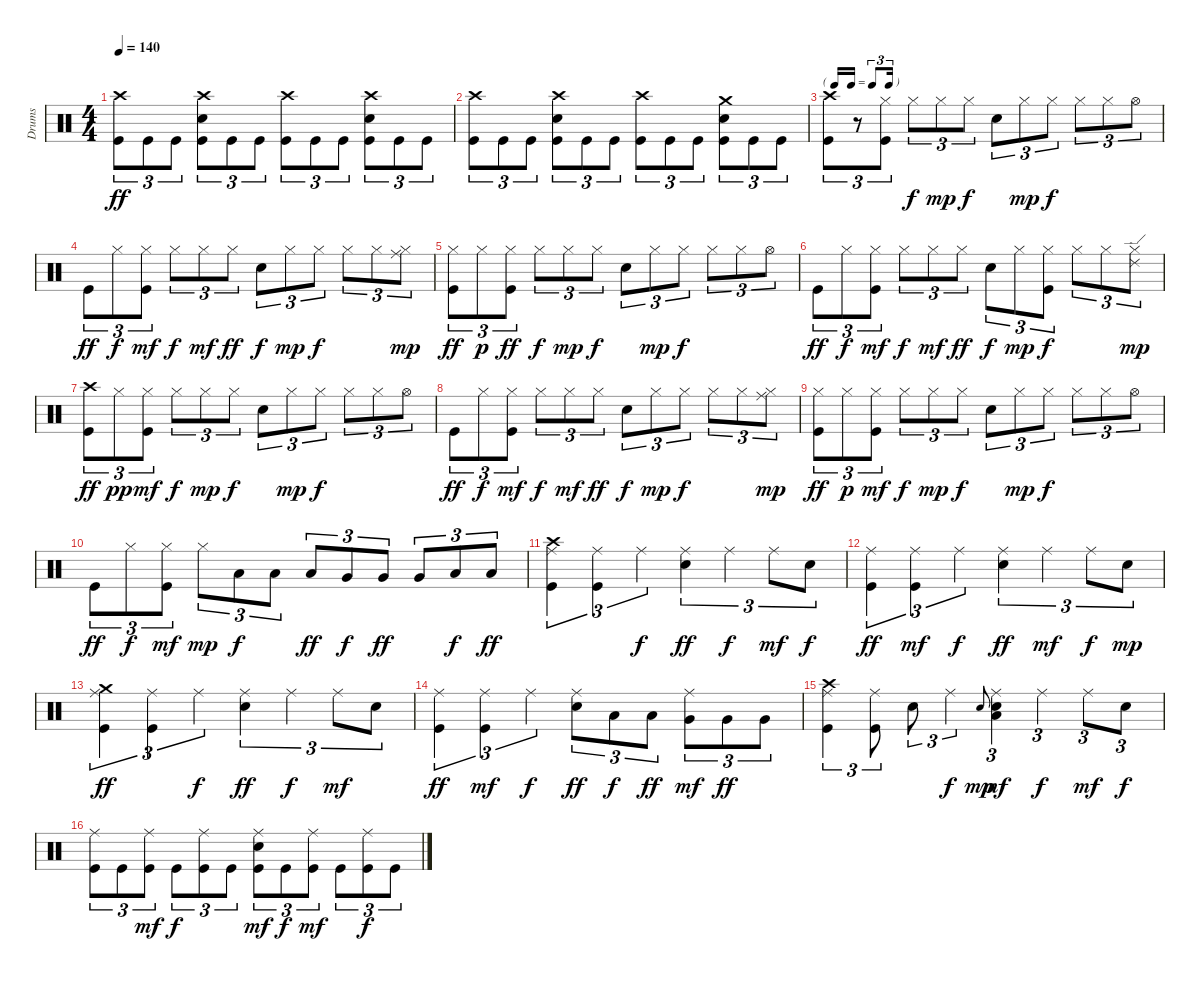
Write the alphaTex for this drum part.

\track ("Drums" "Drums") {instrument percussion}
\staff {score}
\articulation defaults
\ts (4 4)
\tempo 140
\clef neutral
\ks c
("Crash high (hit)" "Kick (hit)").8{tu (3 2) dy ff} "Kick (hit)".8{tu (3 2)} "Kick (hit)".8{tu (3 2)} ("Crash high (hit)" "Electric Snare (hit)" "Kick (hit)").8{tu (3 2)} "Kick (hit)".8{tu (3 2)} "Kick (hit)".8{tu (3 2)} ("Crash high (hit)" "Kick (hit)").8{tu (3 2)} "Kick (hit)".8{tu (3 2)} "Kick (hit)".8{tu (3 2)} ("Crash high (hit)" "Electric Snare (hit)" "Kick (hit)").8{tu (3 2)} "Kick (hit)".8{tu (3 2)} "Kick (hit)".8{tu (3 2)} |
("Crash high (hit)" "Kick (hit)").8{tu (3 2)} "Kick (hit)".8{tu (3 2)} "Kick (hit)".8{tu (3 2)} ("Crash high (hit)" "Electric Snare (hit)" "Kick (hit)").8{tu (3 2)} "Kick (hit)".8{tu (3 2)} "Kick (hit)".8{tu (3 2)} ("Crash high (hit)" "Kick (hit)").8{tu (3 2)} "Kick (hit)".8{tu (3 2)} "Kick (hit)".8{tu (3 2)} ("Crash medium (hit)" "Electric Snare (hit)" "Kick (hit)").8{tu (3 2)} "Kick (hit)".8{tu (3 2)} "Kick (hit)".8{tu (3 2)} |
\tf triplet16th
("Crash high (hit)" "Kick (hit)").8{tu (3 2)} r.8{tu (3 2)} ("Hi-Hat (closed)" "Kick (hit)").8{tu (3 2)} "Hi-Hat (closed)".8{tu (3 2) dy f} "Hi-Hat (closed)".8{tu (3 2) dy mp} "Hi-Hat (closed)".8{tu (3 2) dy f} "Electric Snare (hit)".8{tu (3 2)} "Hi-Hat (closed)".8{tu (3 2) dy mp} "Hi-Hat (closed)".8{tu (3 2) dy f} "Hi-Hat (closed)".8{tu (3 2)} "Hi-Hat (closed)".8{tu (3 2)} "Hi-Hat (open)".8{tu (3 2)} |
"Kick (hit)".8{tu (3 2) dy ff} "Hi-Hat (closed)".8{tu (3 2) dy f} ("Hi-Hat (closed)" "Kick (hit)").8{tu (3 2) dy mf} "Hi-Hat (closed)".8{tu (3 2) dy f} "Hi-Hat (closed)".8{tu (3 2) dy mf} "Hi-Hat (closed)".8{tu (3 2) dy ff} "Electric Snare (hit)".8{tu (3 2) dy f} "Hi-Hat (closed)".8{tu (3 2) dy mp} "Hi-Hat (closed)".8{tu (3 2) dy f} "Hi-Hat (closed)".8{tu (3 2)} "Hi-Hat (closed)".8{tu (3 2)} ("Hi-Hat (closed)" "Ride (middle)").8{tu (3 2) dy mp} |
("Hi-Hat (closed)" "Kick (hit)").8{tu (3 2) dy ff} "Hi-Hat (closed)".8{tu (3 2) dy p} ("Hi-Hat (closed)" "Kick (hit)").8{tu (3 2) dy ff} "Hi-Hat (closed)".8{tu (3 2) dy f} "Hi-Hat (closed)".8{tu (3 2) dy mp} "Hi-Hat (closed)".8{tu (3 2) dy f} "Electric Snare (hit)".8{tu (3 2)} "Hi-Hat (closed)".8{tu (3 2) dy mp} "Hi-Hat (closed)".8{tu (3 2) dy f} "Hi-Hat (closed)".8{tu (3 2)} "Hi-Hat (closed)".8{tu (3 2)} "Hi-Hat (open)".8{tu (3 2)} |
"Kick (hit)".8{tu (3 2) dy ff} "Hi-Hat (closed)".8{tu (3 2) dy f} ("Hi-Hat (closed)" "Kick (hit)").8{tu (3 2) dy mf} "Hi-Hat (closed)".8{tu (3 2) dy f} "Hi-Hat (closed)".8{tu (3 2) dy mf} "Hi-Hat (closed)".8{tu (3 2) dy ff} "Electric Snare (hit)".8{tu (3 2) dy f} "Hi-Hat (closed)".8{tu (3 2) dy mp} ("Hi-Hat (closed)" "Kick (hit)").8{tu (3 2) dy f} "Hi-Hat (closed)".8{tu (3 2)} "Hi-Hat (closed)".8{tu (3 2)} ("Hi-Hat (closed)" "Ride (edge) 2").8{tu (3 2) dy mp} |
("Crash high (hit)" "Kick (hit)").8{tu (3 2) dy ff} "Hi-Hat (closed)".8{tu (3 2) dy pp} ("Hi-Hat (closed)" "Kick (hit)").8{tu (3 2) dy mf} "Hi-Hat (closed)".8{tu (3 2) dy f} "Hi-Hat (closed)".8{tu (3 2) dy mp} "Hi-Hat (closed)".8{tu (3 2) dy f} "Electric Snare (hit)".8{tu (3 2)} "Hi-Hat (closed)".8{tu (3 2) dy mp} "Hi-Hat (closed)".8{tu (3 2) dy f} "Hi-Hat (closed)".8{tu (3 2)} "Hi-Hat (closed)".8{tu (3 2)} "Hi-Hat (open)".8{tu (3 2)} |
"Kick (hit)".8{tu (3 2) dy ff} "Hi-Hat (closed)".8{tu (3 2) dy f} ("Hi-Hat (closed)" "Kick (hit)").8{tu (3 2) dy mf} "Hi-Hat (closed)".8{tu (3 2) dy f} "Hi-Hat (closed)".8{tu (3 2) dy mf} "Hi-Hat (closed)".8{tu (3 2) dy ff} "Electric Snare (hit)".8{tu (3 2) dy f} "Hi-Hat (closed)".8{tu (3 2) dy mp} "Hi-Hat (closed)".8{tu (3 2) dy f} "Hi-Hat (closed)".8{tu (3 2)} "Hi-Hat (closed)".8{tu (3 2)} ("Hi-Hat (closed)" "Ride (middle)").8{tu (3 2) dy mp} |
("Hi-Hat (closed)" "Kick (hit)").8{tu (3 2) dy ff} "Hi-Hat (closed)".8{tu (3 2) dy p} ("Hi-Hat (closed)" "Kick (hit)").8{tu (3 2) dy mf} "Hi-Hat (closed)".8{tu (3 2) dy f} "Hi-Hat (closed)".8{tu (3 2) dy mp} "Hi-Hat (closed)".8{tu (3 2) dy f} "Electric Snare (hit)".8{tu (3 2)} "Hi-Hat (closed)".8{tu (3 2) dy mp} "Hi-Hat (closed)".8{tu (3 2) dy f} "Hi-Hat (closed)".8{tu (3 2)} "Hi-Hat (closed)".8{tu (3 2)} "Hi-Hat (open)".8{tu (3 2)} |
"Kick (hit)".8{tu (3 2) dy ff} "Hi-Hat (closed)".8{tu (3 2) dy f} ("Hi-Hat (closed)" "Kick (hit)").8{tu (3 2) dy mf} "Hi-Hat (closed)".8{tu (3 2) dy mp} "Low Tom (hit)".8{tu (3 2) dy f} "Low Tom (hit)".8{tu (3 2)} "Low Tom (hit)".8{tu (3 2) dy ff} "Very Low Tom (hit)".8{tu (3 2) dy f} "Very Low Tom (hit)".8{tu (3 2) dy ff} "Very Low Tom (hit)".8{tu (3 2)} "Low Floor Tom (hit)".8{tu (3 2) dy f} "Low Floor Tom (hit)".8{tu (3 2) dy ff} |
("Crash high (hit)" "Ride (middle)" "Kick (hit)").4{tu (3 2)} ("Ride (middle)" "Kick (hit)").4{tu (3 2)} "Ride (middle)".4{tu (3 2) dy f} ("Ride (middle)" "Electric Snare (hit)").4{tu (3 2) dy ff} "Ride (middle)".4{tu (3 2) dy f} "Ride (middle)".8{tu (3 2) dy mf} "Electric Snare (hit)".8{tu (3 2) dy f} |
("Ride (middle)" "Kick (hit)").4{tu (3 2) dy ff} ("Ride (middle)" "Kick (hit)").4{tu (3 2) dy mf} "Ride (middle)".4{tu (3 2) dy f} ("Ride (middle)" "Electric Snare (hit)").4{tu (3 2) dy ff} "Ride (middle)".4{tu (3 2) dy mf} "Ride (middle)".8{tu (3 2) dy f} "Electric Snare (hit)".8{tu (3 2) dy mp} |
("Crash medium (hit)" "Ride (middle)" "Kick (hit)").4{tu (3 2) dy ff} ("Ride (middle)" "Kick (hit)").4{tu (3 2)} "Ride (middle)".4{tu (3 2) dy f} ("Ride (middle)" "Electric Snare (hit)").4{tu (3 2) dy ff} "Ride (middle)".4{tu (3 2) dy f} "Ride (middle)".8{tu (3 2) dy mf} "Electric Snare (hit)".8{tu (3 2)} |
("Ride (middle)" "Kick (hit)").4{tu (3 2) dy ff} ("Ride (middle)" "Kick (hit)").4{tu (3 2) dy mf} "Ride (middle)".4{tu (3 2) dy f} ("Ride (middle)" "Electric Snare (hit)").8{tu (3 2) dy ff} "Low Tom (hit)".8{tu (3 2) dy f} "Low Tom (hit)".8{tu (3 2) dy ff} ("Ride (middle)" "Very Low Tom (hit)").8{tu (3 2) dy mf} "Very Low Tom (hit)".8{tu (3 2) dy ff} "Very Low Tom (hit)".8{tu (3 2)} |
("Crash high (hit)" "Ride (middle)" "Kick (hit)").4{tu (3 2)} ("Ride (middle)" "Kick (hit)").8{tu (3 2)} "Electric Snare (hit)".8{tu (3 2)} "Ride (middle)".4{tu (3 2) dy f} "Electric Snare (hit)".8{gr onbeat dy mp} ("Ride (middle)" "Low Tom (hit)" "Electric Snare (hit)").4{tu (3 2) dy mf} "Ride (middle)".4{tu (3 2) dy f} "Ride (middle)".8{tu (3 2) dy mf} "Electric Snare (hit)".8{tu (3 2) dy f} |
("Ride (middle)" "Kick (hit)").8{tu (3 2)} "Kick (hit)".8{tu (3 2)} ("Ride (middle)" "Kick (hit)").8{tu (3 2) dy mf} "Kick (hit)".8{tu (3 2) dy f} ("Ride (middle)" "Kick (hit)").8{tu (3 2)} "Kick (hit)".8{tu (3 2)} ("Ride (middle)" "Electric Snare (hit)" "Kick (hit)").8{tu (3 2) dy mf} "Kick (hit)".8{tu (3 2) dy f} ("Ride (middle)" "Kick (hit)").8{tu (3 2) dy mf} "Kick (hit)".8{tu (3 2)} ("Ride (middle)" "Kick (hit)").8{tu (3 2) dy f} "Kick (hit)".8{tu (3 2)}
